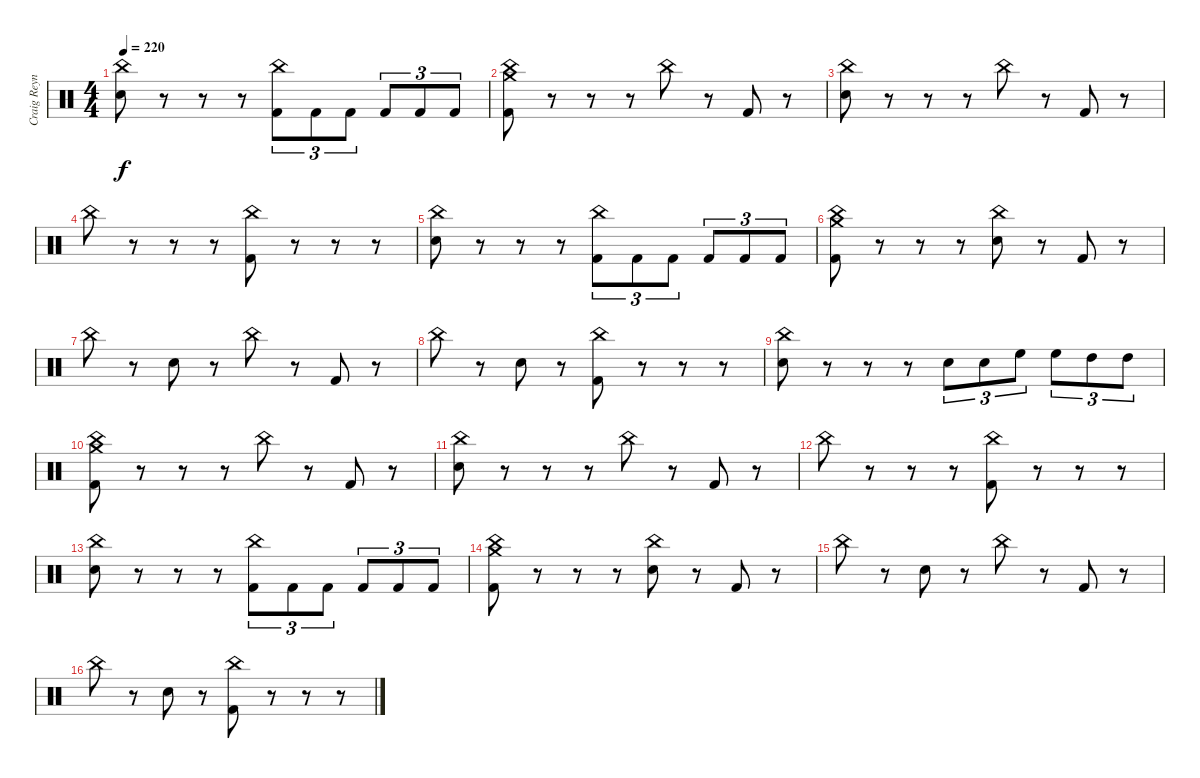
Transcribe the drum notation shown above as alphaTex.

\track ("Craig Reynolds" "Craig Reyn") {instrument percussion}
\staff {score}
\articulation defaults
\ts (4 4)
\tempo 220
\clef neutral
\ks c
("China (hit)" "Electric Snare (hit)").8{dy f} r.8 r.8 r.8 ("China (hit)" "Kick (hit) 2").8{tu (3 2)} "Kick (hit) 2".8{tu (3 2)} "Kick (hit) 2".8{tu (3 2)} "Kick (hit) 2".8{tu (3 2)} "Kick (hit) 2".8{tu (3 2)} "Kick (hit) 2".8{tu (3 2)} |
("Crash medium (hit)" "China (hit)" "Kick (hit) 2").8 r.8 r.8 r.8 "China (hit)".8 r.8 "Kick (hit) 2".8 r.8 |
("China (hit)" "Electric Snare (hit)").8 r.8 r.8 r.8 "China (hit)".8 r.8 "Kick (hit) 2".8 r.8 |
"China (hit)".8 r.8 r.8 r.8 ("China (hit)" "Kick (hit) 2").8 r.8 r.8 r.8 |
("China (hit)" "Electric Snare (hit)").8 r.8 r.8 r.8 ("China (hit)" "Kick (hit) 2").8{tu (3 2)} "Kick (hit) 2".8{tu (3 2)} "Kick (hit) 2".8{tu (3 2)} "Kick (hit) 2".8{tu (3 2)} "Kick (hit) 2".8{tu (3 2)} "Kick (hit) 2".8{tu (3 2)} |
("Crash medium (hit)" "China (hit)" "Kick (hit) 2").8 r.8 r.8 r.8 ("China (hit)" "Electric Snare (hit)").8 r.8 "Kick (hit) 2".8 r.8 |
"China (hit)".8 r.8 "Electric Snare (hit)".8 r.8 "China (hit)".8 r.8 "Kick (hit) 2".8 r.8 |
"China (hit)".8 r.8 "Electric Snare (hit)".8 r.8 ("China (hit)" "Kick (hit) 2").8 r.8 r.8 r.8 |
("China (hit)" "Electric Snare (hit)").8 r.8 r.8 r.8 "Electric Snare (hit)".8{tu (3 2)} "Electric Snare (hit)".8{tu (3 2)} "High Floor Tom (hit)".8{tu (3 2)} "High Floor Tom (hit)".8{tu (3 2)} "High Tom (hit)".8{tu (3 2)} "High Tom (hit)".8{tu (3 2)} |
("Crash medium (hit)" "China (hit)" "Kick (hit) 2").8 r.8 r.8 r.8 "China (hit)".8 r.8 "Kick (hit) 2".8 r.8 |
("China (hit)" "Electric Snare (hit)").8 r.8 r.8 r.8 "China (hit)".8 r.8 "Kick (hit) 2".8 r.8 |
"China (hit)".8 r.8 r.8 r.8 ("China (hit)" "Kick (hit) 2").8 r.8 r.8 r.8 |
("China (hit)" "Electric Snare (hit)").8 r.8 r.8 r.8 ("China (hit)" "Kick (hit) 2").8{tu (3 2)} "Kick (hit) 2".8{tu (3 2)} "Kick (hit) 2".8{tu (3 2)} "Kick (hit) 2".8{tu (3 2)} "Kick (hit) 2".8{tu (3 2)} "Kick (hit) 2".8{tu (3 2)} |
("Crash medium (hit)" "China (hit)" "Kick (hit) 2").8 r.8 r.8 r.8 ("China (hit)" "Electric Snare (hit)").8 r.8 "Kick (hit) 2".8 r.8 |
"China (hit)".8 r.8 "Electric Snare (hit)".8 r.8 "China (hit)".8 r.8 "Kick (hit) 2".8 r.8 |
"China (hit)".8 r.8 "Electric Snare (hit)".8 r.8 ("China (hit)" "Kick (hit) 2").8 r.8 r.8 r.8
